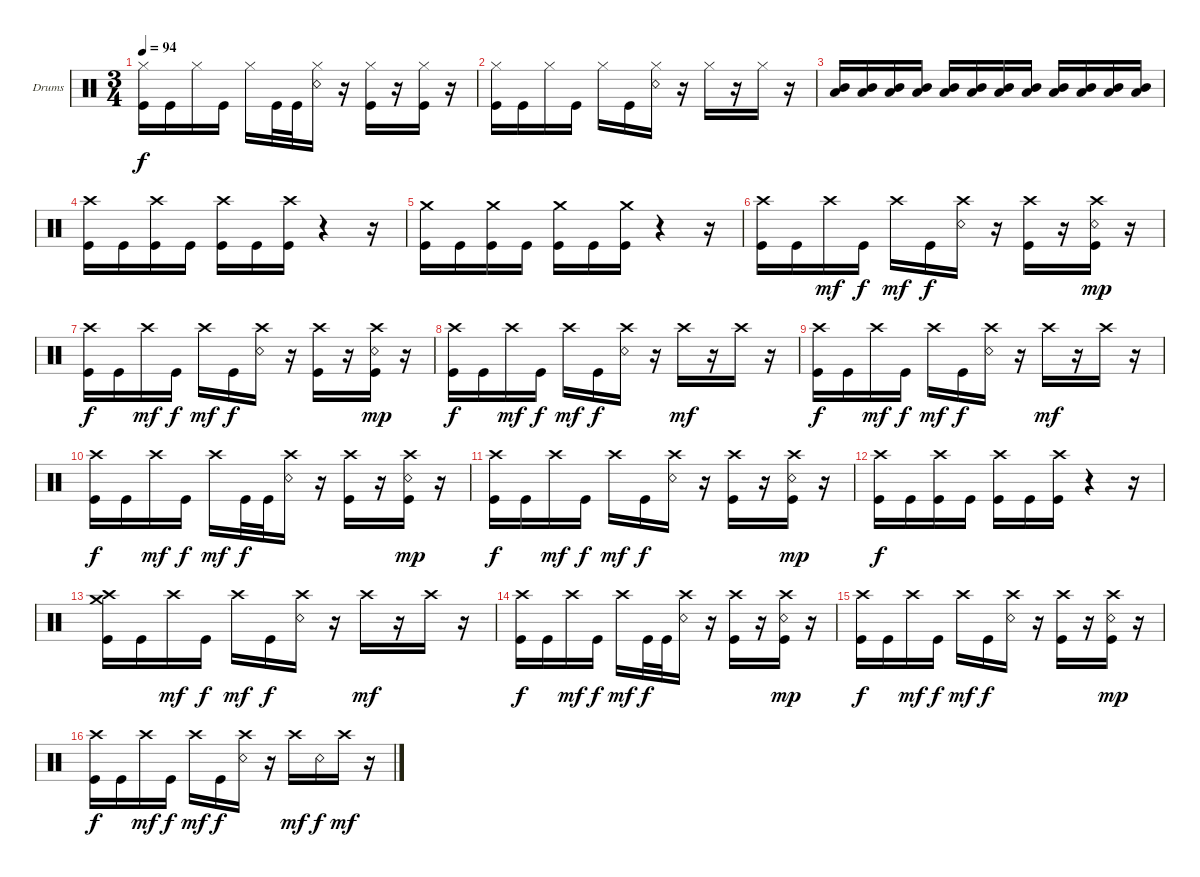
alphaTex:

\bracketExtendMode groupsimilarinstruments
\firstSystemTrackNameOrientation horizontal
\otherSystemsTrackNameOrientation horizontal
\track ("Drumkit" "Drums") {instrument percussion}
\staff {score}
\articulation defaults
\ts (3 4)
\tempo 94
\clef neutral
\ks c
("Kick (hit)" "Hi-Hat (closed)").16{dy f} "Kick (hit)".16 "Hi-Hat (closed)".16 "Kick (hit)".16 "Hi-Hat (closed)".16 "Kick (hit)".32 "Kick (hit)".32 ("Snare (rim shot)" "Hi-Hat (closed)").16 r.16 ("Kick (hit)" "Hi-Hat (closed)").16 r.16 ("Kick (hit)" "Hi-Hat (closed)").16 r.16 |
("Kick (hit)" "Hi-Hat (closed)").16 "Kick (hit)".16 "Hi-Hat (closed)".16 "Kick (hit)".16 "Hi-Hat (closed)".16 "Kick (hit)".16 ("Snare (rim shot)" "Hi-Hat (closed)").16 r.16 "Hi-Hat (closed)".16 r.16 "Hi-Hat (closed)".16 r.16 |
("Mid Tom (hit)" "Low Tom (hit)").16 ("Mid Tom (hit)" "Low Tom (hit)").16 ("Mid Tom (hit)" "Low Tom (hit)").16 ("Mid Tom (hit)" "Low Tom (hit)").16 ("Mid Tom (hit)" "Low Tom (hit)").16 ("Mid Tom (hit)" "Low Tom (hit)").16 ("Mid Tom (hit)" "Low Tom (hit)").16 ("Mid Tom (hit)" "Low Tom (hit)").16 ("Mid Tom (hit)" "Low Tom (hit)").16 ("Mid Tom (hit)" "Low Tom (hit)").16 ("Mid Tom (hit)" "Low Tom (hit)").16 ("Mid Tom (hit)" "Low Tom (hit)").16 |
("Kick (hit)" "Crash high (hit)").16 "Kick (hit)".16 ("Kick (hit)" "Crash high (hit)").16 "Kick (hit)".16 ("Kick (hit)" "Crash high (hit)").16 "Kick (hit)".16 ("Kick (hit)" "Crash high (hit)").16 r.4 r.16 |
("Kick (hit)" "Crash medium (hit)").16 "Kick (hit)".16 ("Kick (hit)" "Crash medium (hit)").16 "Kick (hit)".16 ("Kick (hit)" "Crash medium (hit)").16 "Kick (hit)".16 ("Kick (hit)" "Crash medium (hit)").16 r.4 r.16 |
("Kick (hit)" "Crash high (hit)").16 "Kick (hit)".16 "Crash high (hit)".16{dy mf} "Kick (hit)".16{dy f} "Crash high (hit)".16{dy mf} "Kick (hit)".16{dy f} ("Snare (rim shot)" "Crash high (hit)").16 r.16 ("Kick (hit)" "Crash high (hit)").16 r.16 ("Kick (hit)" "Snare (rim shot)" "Crash high (hit)").16{dy mp} r.16 |
("Kick (hit)" "Crash high (hit)").16{dy f} "Kick (hit)".16 "Crash high (hit)".16{dy mf} "Kick (hit)".16{dy f} "Crash high (hit)".16{dy mf} "Kick (hit)".16{dy f} ("Snare (rim shot)" "Crash high (hit)").16 r.16 ("Kick (hit)" "Crash high (hit)").16 r.16 ("Kick (hit)" "Snare (rim shot)" "Crash high (hit)").16{dy mp} r.16 |
("Kick (hit)" "Crash high (hit)").16{dy f} "Kick (hit)".16 "Crash high (hit)".16{dy mf} "Kick (hit)".16{dy f} "Crash high (hit)".16{dy mf} "Kick (hit)".16{dy f} ("Snare (rim shot)" "Crash high (hit)").16 r.16 "Crash high (hit)".16{dy mf} r.16 "Crash high (hit)".16 r.16 |
("Kick (hit)" "Crash high (hit)").16{dy f} "Kick (hit)".16 "Crash high (hit)".16{dy mf} "Kick (hit)".16{dy f} "Crash high (hit)".16{dy mf} "Kick (hit)".16{dy f} ("Snare (rim shot)" "Crash high (hit)").16 r.16 "Crash high (hit)".16{dy mf} r.16 "Crash high (hit)".16 r.16 |
("Kick (hit)" "Crash high (hit)").16{dy f} "Kick (hit)".16 "Crash high (hit)".16{dy mf} "Kick (hit)".16{dy f} "Crash high (hit)".16{dy mf} "Kick (hit)".32{dy f} "Kick (hit)".32 ("Snare (rim shot)" "Crash high (hit)").16 r.16 ("Kick (hit)" "Crash high (hit)").16 r.16 ("Kick (hit)" "Snare (rim shot)" "Crash high (hit)").16{dy mp} r.16 |
("Kick (hit)" "Crash high (hit)").16{dy f} "Kick (hit)".16 "Crash high (hit)".16{dy mf} "Kick (hit)".16{dy f} "Crash high (hit)".16{dy mf} "Kick (hit)".16{dy f} ("Snare (rim shot)" "Crash high (hit)").16 r.16 ("Kick (hit)" "Crash high (hit)").16 r.16 ("Kick (hit)" "Snare (rim shot)" "Crash high (hit)").16{dy mp} r.16 |
("Kick (hit)" "Crash high (hit)").16{dy f} "Kick (hit)".16 ("Kick (hit)" "Crash high (hit)").16 "Kick (hit)".16 ("Kick (hit)" "Crash high (hit)").16 "Kick (hit)".16 ("Kick (hit)" "Crash high (hit)").16 r.4 r.16 |
("Kick (hit)" "Crash high (hit)" "Crash medium (hit)").16 "Kick (hit)".16 "Crash high (hit)".16{dy mf} "Kick (hit)".16{dy f} "Crash high (hit)".16{dy mf} "Kick (hit)".16{dy f} ("Snare (rim shot)" "Crash high (hit)").16 r.16 "Crash high (hit)".16{dy mf} r.16 "Crash high (hit)".16 r.16 |
("Kick (hit)" "Crash high (hit)").16{dy f} "Kick (hit)".16 "Crash high (hit)".16{dy mf} "Kick (hit)".16{dy f} "Crash high (hit)".16{dy mf} "Kick (hit)".32{dy f} "Kick (hit)".32 ("Snare (rim shot)" "Crash high (hit)").16 r.16 ("Kick (hit)" "Crash high (hit)").16 r.16 ("Kick (hit)" "Snare (rim shot)" "Crash high (hit)").16{dy mp} r.16 |
("Kick (hit)" "Crash high (hit)").16{dy f} "Kick (hit)".16 "Crash high (hit)".16{dy mf} "Kick (hit)".16{dy f} "Crash high (hit)".16{dy mf} "Kick (hit)".16{dy f} ("Snare (rim shot)" "Crash high (hit)").16 r.16 ("Kick (hit)" "Crash high (hit)").16 r.16 ("Kick (hit)" "Snare (rim shot)" "Crash high (hit)").16{dy mp} r.16 |
("Kick (hit)" "Crash high (hit)").16{dy f} "Kick (hit)".16 "Crash high (hit)".16{dy mf} "Kick (hit)".16{dy f} "Crash high (hit)".16{dy mf} "Kick (hit)".16{dy f} ("Snare (rim shot)" "Crash high (hit)").16 r.16 "Crash high (hit)".16{dy mf} "Snare (rim shot)".16{dy f} "Crash high (hit)".16{dy mf} r.16
